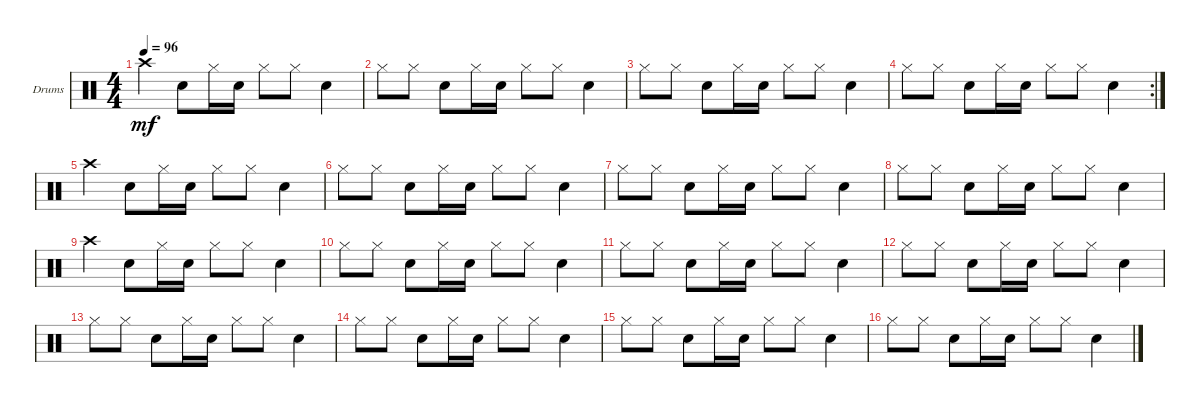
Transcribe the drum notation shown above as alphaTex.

\bracketExtendMode groupsimilarinstruments
\firstSystemTrackNameOrientation horizontal
\otherSystemsTrackNameOrientation horizontal
\track ("Drumkit" "Drums") {instrument percussion}
\staff {score}
\articulation defaults
\ts (4 4)
\tempo 96
\clef neutral
\ks c "Crash high (hit)".4{dy mf} "Snare (hit) 2".8 "Hi-Hat (closed)".16 "Snare (hit) 2".16{beam split} "Hi-Hat (closed)".8{beam merge} "Hi-Hat (closed)".8 "Snare (hit) 2".4
|
"Hi-Hat (closed)".8 "Hi-Hat (closed)".8 "Snare (hit) 2".8 "Hi-Hat (closed)".16 "Snare (hit) 2".16{beam split} "Hi-Hat (closed)".8{beam merge} "Hi-Hat (closed)".8 "Snare (hit) 2".4 |
"Hi-Hat (closed)".8 "Hi-Hat (closed)".8 "Snare (hit) 2".8 "Hi-Hat (closed)".16 "Snare (hit) 2".16{beam split} "Hi-Hat (closed)".8{beam merge} "Hi-Hat (closed)".8 "Snare (hit) 2".4 |
\rc 2 "Hi-Hat (closed)".8 "Hi-Hat (closed)".8 "Snare (hit) 2".8 "Hi-Hat (closed)".16 "Snare (hit) 2".16{beam split} "Hi-Hat (closed)".8{beam merge} "Hi-Hat (closed)".8 "Snare (hit) 2".4
|
"Crash high (hit)".4 "Snare (hit) 2".8 "Hi-Hat (closed)".16 "Snare (hit) 2".16{beam split} "Hi-Hat (closed)".8{beam merge} "Hi-Hat (closed)".8 "Snare (hit) 2".4 |
"Hi-Hat (closed)".8 "Hi-Hat (closed)".8 "Snare (hit) 2".8 "Hi-Hat (closed)".16 "Snare (hit) 2".16{beam split} "Hi-Hat (closed)".8{beam merge} "Hi-Hat (closed)".8 "Snare (hit) 2".4 |
"Hi-Hat (closed)".8 "Hi-Hat (closed)".8 "Snare (hit) 2".8 "Hi-Hat (closed)".16 "Snare (hit) 2".16{beam split} "Hi-Hat (closed)".8{beam merge} "Hi-Hat (closed)".8 "Snare (hit) 2".4 |
"Hi-Hat (closed)".8 "Hi-Hat (closed)".8 "Snare (hit) 2".8 "Hi-Hat (closed)".16 "Snare (hit) 2".16{beam split} "Hi-Hat (closed)".8{beam merge} "Hi-Hat (closed)".8 "Snare (hit) 2".4 |
"Crash high (hit)".4 "Snare (hit) 2".8 "Hi-Hat (closed)".16 "Snare (hit) 2".16{beam split} "Hi-Hat (closed)".8{beam merge} "Hi-Hat (closed)".8 "Snare (hit) 2".4 |
"Hi-Hat (closed)".8 "Hi-Hat (closed)".8 "Snare (hit) 2".8 "Hi-Hat (closed)".16 "Snare (hit) 2".16{beam split} "Hi-Hat (closed)".8{beam merge} "Hi-Hat (closed)".8 "Snare (hit) 2".4 |
"Hi-Hat (closed)".8 "Hi-Hat (closed)".8 "Snare (hit) 2".8 "Hi-Hat (closed)".16 "Snare (hit) 2".16{beam split} "Hi-Hat (closed)".8{beam merge} "Hi-Hat (closed)".8 "Snare (hit) 2".4 |
"Hi-Hat (closed)".8 "Hi-Hat (closed)".8 "Snare (hit) 2".8 "Hi-Hat (closed)".16 "Snare (hit) 2".16{beam split} "Hi-Hat (closed)".8{beam merge} "Hi-Hat (closed)".8 "Snare (hit) 2".4 |
"Hi-Hat (closed)".8 "Hi-Hat (closed)".8 "Snare (hit) 2".8 "Hi-Hat (closed)".16 "Snare (hit) 2".16{beam split} "Hi-Hat (closed)".8{beam merge} "Hi-Hat (closed)".8 "Snare (hit) 2".4 |
"Hi-Hat (closed)".8 "Hi-Hat (closed)".8 "Snare (hit) 2".8 "Hi-Hat (closed)".16 "Snare (hit) 2".16{beam split} "Hi-Hat (closed)".8{beam merge} "Hi-Hat (closed)".8 "Snare (hit) 2".4 |
"Hi-Hat (closed)".8 "Hi-Hat (closed)".8 "Snare (hit) 2".8 "Hi-Hat (closed)".16 "Snare (hit) 2".16{beam split} "Hi-Hat (closed)".8{beam merge} "Hi-Hat (closed)".8 "Snare (hit) 2".4 |
"Hi-Hat (closed)".8 "Hi-Hat (closed)".8 "Snare (hit) 2".8 "Hi-Hat (closed)".16 "Snare (hit) 2".16{beam split} "Hi-Hat (closed)".8{beam merge} "Hi-Hat (closed)".8 "Snare (hit) 2".4
